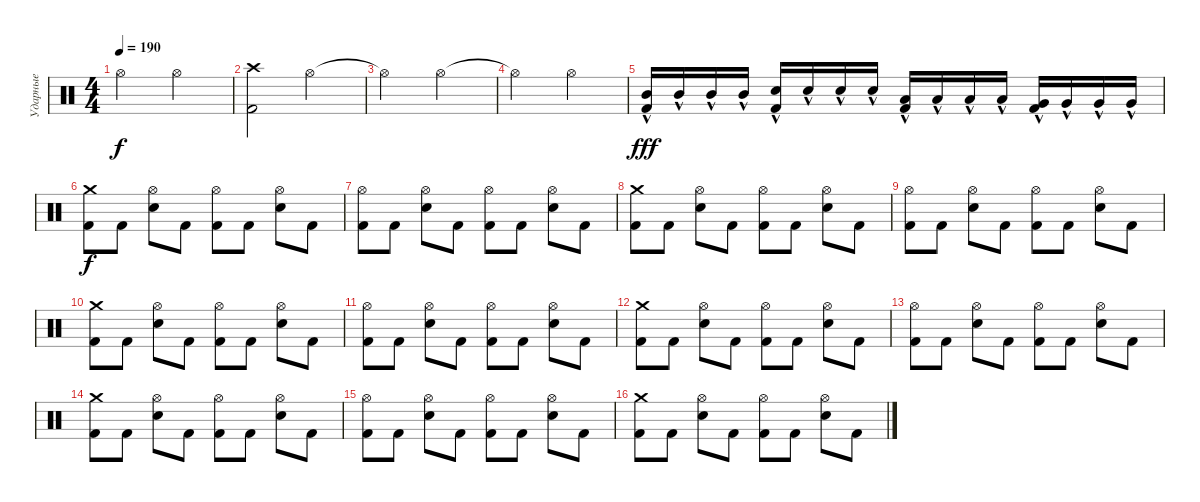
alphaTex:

\track ("Ударные" "Ударные") {instrument percussion}
\staff {score}
\articulation defaults
\ts (4 4)
\tempo 190
\clef neutral
\ks c "Hi-Hat (open)"{t}.2{dy f} "Hi-Hat (open)".2
|
("Crash high (hit)" "Kick (hit) 2").2 "Hi-Hat (open)".2 |
"Hi-Hat (open)"{t}.2 "Hi-Hat (open)".2 |
"Hi-Hat (open)"{t}.2 "Hi-Hat (open)".2 |
("Mid Tom (hit)"{hac} "Kick (hit) 2"{hac}).16{dy fff} "Mid Tom (hit)"{hac}.16 "Mid Tom (hit)"{hac}.16 "Mid Tom (hit)"{hac}.16 ("Electric Snare (hit)"{hac} "Kick (hit) 2"{hac}).16 "Electric Snare (hit)"{hac}.16 "Electric Snare (hit)"{hac}.16 "Electric Snare (hit)"{hac}.16 ("Low Tom (hit)"{hac} "Kick (hit) 2"{hac}).16 "Low Tom (hit)"{hac}.16 "Low Tom (hit)"{hac}.16 "Low Tom (hit)"{hac}.16 ("Very Low Tom (hit)"{hac} "Kick (hit) 2"{hac}).16 "Very Low Tom (hit)"{hac}.16 "Very Low Tom (hit)"{hac}.16 "Very Low Tom (hit)"{hac}.16 |
("Crash medium (hit)" "Kick (hit) 2").8{dy f} "Kick (hit) 2".8 ("Hi-Hat (open)" "Electric Snare (hit)").8 "Kick (hit) 2".8 ("Hi-Hat (open)" "Kick (hit) 2").8 "Kick (hit) 2".8 ("Hi-Hat (open)" "Electric Snare (hit)").8 "Kick (hit) 2".8 |
("Hi-Hat (open)" "Kick (hit) 2").8 "Kick (hit) 2".8 ("Hi-Hat (open)" "Electric Snare (hit)").8 "Kick (hit) 2".8 ("Hi-Hat (open)" "Kick (hit) 2").8 "Kick (hit) 2".8 ("Hi-Hat (open)" "Electric Snare (hit)").8 "Kick (hit) 2".8 |
("Crash medium (hit)" "Kick (hit) 2").8 "Kick (hit) 2".8 ("Hi-Hat (open)" "Electric Snare (hit)").8 "Kick (hit) 2".8 ("Hi-Hat (open)" "Kick (hit) 2").8 "Kick (hit) 2".8 ("Hi-Hat (open)" "Electric Snare (hit)").8 "Kick (hit) 2".8 |
("Hi-Hat (open)" "Kick (hit) 2").8 "Kick (hit) 2".8 ("Hi-Hat (open)" "Electric Snare (hit)").8 "Kick (hit) 2".8 ("Hi-Hat (open)" "Kick (hit) 2").8 "Kick (hit) 2".8 ("Hi-Hat (open)" "Electric Snare (hit)").8 "Kick (hit) 2".8 |
("Crash medium (hit)" "Kick (hit) 2").8 "Kick (hit) 2".8 ("Hi-Hat (open)" "Electric Snare (hit)").8 "Kick (hit) 2".8 ("Hi-Hat (open)" "Kick (hit) 2").8 "Kick (hit) 2".8 ("Hi-Hat (open)" "Electric Snare (hit)").8 "Kick (hit) 2".8 |
("Hi-Hat (open)" "Kick (hit) 2").8 "Kick (hit) 2".8 ("Hi-Hat (open)" "Electric Snare (hit)").8 "Kick (hit) 2".8 ("Hi-Hat (open)" "Kick (hit) 2").8 "Kick (hit) 2".8 ("Hi-Hat (open)" "Electric Snare (hit)").8 "Kick (hit) 2".8 |
("Crash medium (hit)" "Kick (hit) 2").8 "Kick (hit) 2".8 ("Hi-Hat (open)" "Electric Snare (hit)").8 "Kick (hit) 2".8 ("Hi-Hat (open)" "Kick (hit) 2").8 "Kick (hit) 2".8 ("Hi-Hat (open)" "Electric Snare (hit)").8 "Kick (hit) 2".8 |
("Hi-Hat (open)" "Kick (hit) 2").8 "Kick (hit) 2".8 ("Hi-Hat (open)" "Electric Snare (hit)").8 "Kick (hit) 2".8 ("Hi-Hat (open)" "Kick (hit) 2").8 "Kick (hit) 2".8 ("Hi-Hat (open)" "Electric Snare (hit)").8 "Kick (hit) 2".8 |
("Crash medium (hit)" "Kick (hit) 2").8 "Kick (hit) 2".8 ("Hi-Hat (open)" "Electric Snare (hit)").8 "Kick (hit) 2".8 ("Hi-Hat (open)" "Kick (hit) 2").8 "Kick (hit) 2".8 ("Hi-Hat (open)" "Electric Snare (hit)").8 "Kick (hit) 2".8 |
("Hi-Hat (open)" "Kick (hit) 2").8 "Kick (hit) 2".8 ("Hi-Hat (open)" "Electric Snare (hit)").8 "Kick (hit) 2".8 ("Hi-Hat (open)" "Kick (hit) 2").8 "Kick (hit) 2".8 ("Hi-Hat (open)" "Electric Snare (hit)").8 "Kick (hit) 2".8 |
("Crash medium (hit)" "Kick (hit) 2").8 "Kick (hit) 2".8 ("Hi-Hat (open)" "Electric Snare (hit)").8 "Kick (hit) 2".8 ("Hi-Hat (open)" "Kick (hit) 2").8 "Kick (hit) 2".8 ("Hi-Hat (open)" "Electric Snare (hit)").8 "Kick (hit) 2".8
